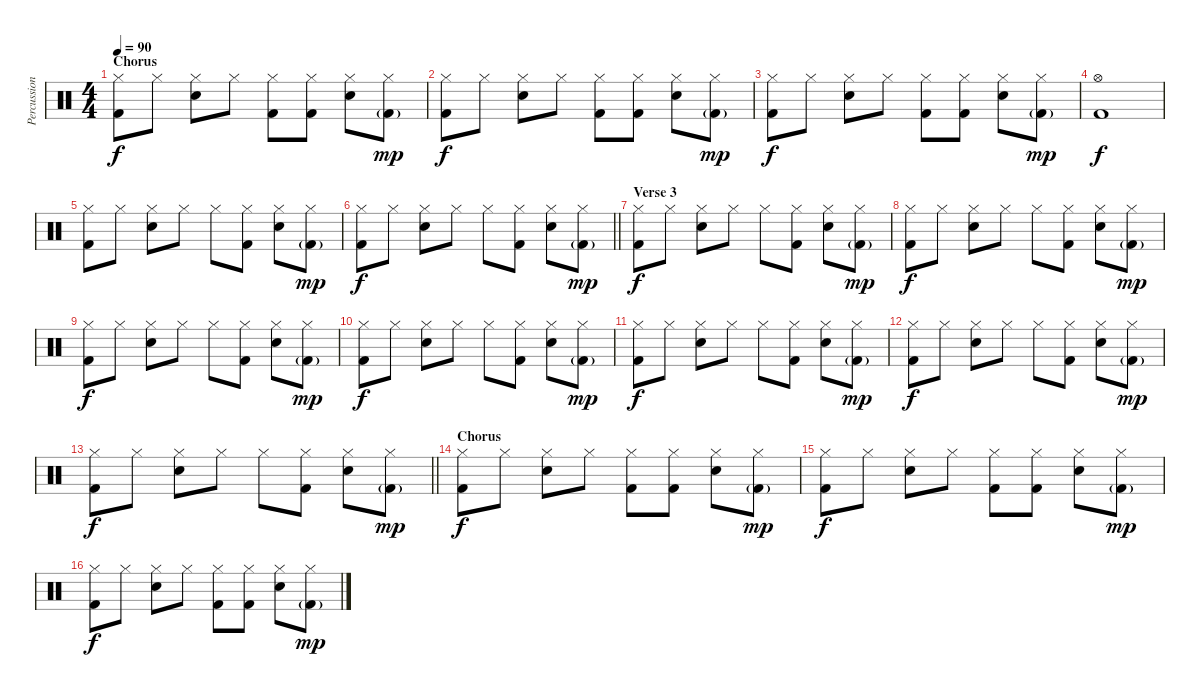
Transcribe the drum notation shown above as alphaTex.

\track ("Percussion" "Percussion") {instrument percussion}
\staff {score}
\articulation defaults
\ts (4 4)
\section ("" "Chorus")
\tempo 90
\clef neutral
\ks c
("Hi-Hat (closed)" "Kick (hit) 2").8{dy f} "Hi-Hat (closed)".8 ("Hi-Hat (closed)" "Snare (hit) 2").8 "Hi-Hat (closed)".8 ("Hi-Hat (closed)" "Kick (hit) 2").8 ("Hi-Hat (closed)" "Kick (hit) 2").8 ("Hi-Hat (closed)" "Snare (hit) 2").8 ("Hi-Hat (closed)" "Kick (hit) 2"{g}).8{dy mp} |
("Hi-Hat (closed)" "Kick (hit) 2").8{dy f} "Hi-Hat (closed)".8 ("Hi-Hat (closed)" "Snare (hit) 2").8 "Hi-Hat (closed)".8 ("Hi-Hat (closed)" "Kick (hit) 2").8 ("Hi-Hat (closed)" "Kick (hit) 2").8 ("Hi-Hat (closed)" "Snare (hit) 2").8 ("Hi-Hat (closed)" "Kick (hit) 2"{g}).8{dy mp} |
("Hi-Hat (closed)" "Kick (hit) 2").8{dy f} "Hi-Hat (closed)".8 ("Hi-Hat (closed)" "Snare (hit) 2").8 "Hi-Hat (closed)".8 ("Hi-Hat (closed)" "Kick (hit) 2").8 ("Hi-Hat (closed)" "Kick (hit) 2").8 ("Hi-Hat (closed)" "Snare (hit) 2").8 ("Hi-Hat (closed)" "Kick (hit) 2"{g}).8{dy mp} |
("Hi-Hat (open)" "Kick (hit) 2").1{dy f} |
("Hi-Hat (closed)" "Kick (hit) 2").8 "Hi-Hat (closed)".8 ("Hi-Hat (closed)" "Snare (hit) 2").8 "Hi-Hat (closed)".8 "Hi-Hat (closed)".8 ("Hi-Hat (closed)" "Kick (hit) 2").8 ("Hi-Hat (closed)" "Snare (hit) 2").8 ("Hi-Hat (closed)" "Kick (hit) 2"{g}).8{dy mp} |
\barLineRight lightlight
("Hi-Hat (closed)" "Kick (hit) 2").8{dy f} "Hi-Hat (closed)".8 ("Hi-Hat (closed)" "Snare (hit) 2").8 "Hi-Hat (closed)".8 "Hi-Hat (closed)".8 ("Hi-Hat (closed)" "Kick (hit) 2").8 ("Hi-Hat (closed)" "Snare (hit) 2").8 ("Hi-Hat (closed)" "Kick (hit) 2"{g}).8{dy mp} |
\section ("" "Verse 3")
("Hi-Hat (closed)" "Kick (hit) 2").8{dy f} "Hi-Hat (closed)".8 ("Hi-Hat (closed)" "Snare (hit) 2").8 "Hi-Hat (closed)".8 "Hi-Hat (closed)".8 ("Hi-Hat (closed)" "Kick (hit) 2").8 ("Hi-Hat (closed)" "Snare (hit) 2").8 ("Hi-Hat (closed)" "Kick (hit) 2"{g}).8{dy mp} |
("Hi-Hat (closed)" "Kick (hit) 2").8{dy f} "Hi-Hat (closed)".8 ("Hi-Hat (closed)" "Snare (hit) 2").8 "Hi-Hat (closed)".8 "Hi-Hat (closed)".8 ("Hi-Hat (closed)" "Kick (hit) 2").8 ("Hi-Hat (closed)" "Snare (hit) 2").8 ("Hi-Hat (closed)" "Kick (hit) 2"{g}).8{dy mp} |
("Hi-Hat (closed)" "Kick (hit) 2").8{dy f} "Hi-Hat (closed)".8 ("Hi-Hat (closed)" "Snare (hit) 2").8 "Hi-Hat (closed)".8 "Hi-Hat (closed)".8 ("Hi-Hat (closed)" "Kick (hit) 2").8 ("Hi-Hat (closed)" "Snare (hit) 2").8 ("Hi-Hat (closed)" "Kick (hit) 2"{g}).8{dy mp} |
("Hi-Hat (closed)" "Kick (hit) 2").8{dy f} "Hi-Hat (closed)".8 ("Hi-Hat (closed)" "Snare (hit) 2").8 "Hi-Hat (closed)".8 "Hi-Hat (closed)".8 ("Hi-Hat (closed)" "Kick (hit) 2").8 ("Hi-Hat (closed)" "Snare (hit) 2").8 ("Hi-Hat (closed)" "Kick (hit) 2"{g}).8{dy mp} |
("Hi-Hat (closed)" "Kick (hit) 2").8{dy f} "Hi-Hat (closed)".8 ("Hi-Hat (closed)" "Snare (hit) 2").8 "Hi-Hat (closed)".8 "Hi-Hat (closed)".8 ("Hi-Hat (closed)" "Kick (hit) 2").8 ("Hi-Hat (closed)" "Snare (hit) 2").8 ("Hi-Hat (closed)" "Kick (hit) 2"{g}).8{dy mp} |
("Hi-Hat (closed)" "Kick (hit) 2").8{dy f} "Hi-Hat (closed)".8 ("Hi-Hat (closed)" "Snare (hit) 2").8 "Hi-Hat (closed)".8 "Hi-Hat (closed)".8 ("Hi-Hat (closed)" "Kick (hit) 2").8 ("Hi-Hat (closed)" "Snare (hit) 2").8 ("Hi-Hat (closed)" "Kick (hit) 2"{g}).8{dy mp} |
\barLineRight lightlight
("Hi-Hat (closed)" "Kick (hit) 2").8{dy f} "Hi-Hat (closed)".8 ("Hi-Hat (closed)" "Snare (hit) 2").8 "Hi-Hat (closed)".8 "Hi-Hat (closed)".8 ("Hi-Hat (closed)" "Kick (hit) 2").8 ("Hi-Hat (closed)" "Snare (hit) 2").8 ("Hi-Hat (closed)" "Kick (hit) 2"{g}).8{dy mp} |
\section ("" "Chorus")
("Hi-Hat (closed)" "Kick (hit) 2").8{dy f} "Hi-Hat (closed)".8 ("Hi-Hat (closed)" "Snare (hit) 2").8 "Hi-Hat (closed)".8 ("Hi-Hat (closed)" "Kick (hit) 2").8 ("Hi-Hat (closed)" "Kick (hit) 2").8 ("Hi-Hat (closed)" "Snare (hit) 2").8 ("Hi-Hat (closed)" "Kick (hit) 2"{g}).8{dy mp} |
("Hi-Hat (closed)" "Kick (hit) 2").8{dy f} "Hi-Hat (closed)".8 ("Hi-Hat (closed)" "Snare (hit) 2").8 "Hi-Hat (closed)".8 ("Hi-Hat (closed)" "Kick (hit) 2").8 ("Hi-Hat (closed)" "Kick (hit) 2").8 ("Hi-Hat (closed)" "Snare (hit) 2").8 ("Hi-Hat (closed)" "Kick (hit) 2"{g}).8{dy mp} |
("Hi-Hat (closed)" "Kick (hit) 2").8{dy f} "Hi-Hat (closed)".8 ("Hi-Hat (closed)" "Snare (hit) 2").8 "Hi-Hat (closed)".8 ("Hi-Hat (closed)" "Kick (hit) 2").8 ("Hi-Hat (closed)" "Kick (hit) 2").8 ("Hi-Hat (closed)" "Snare (hit) 2").8 ("Hi-Hat (closed)" "Kick (hit) 2"{g}).8{dy mp}
